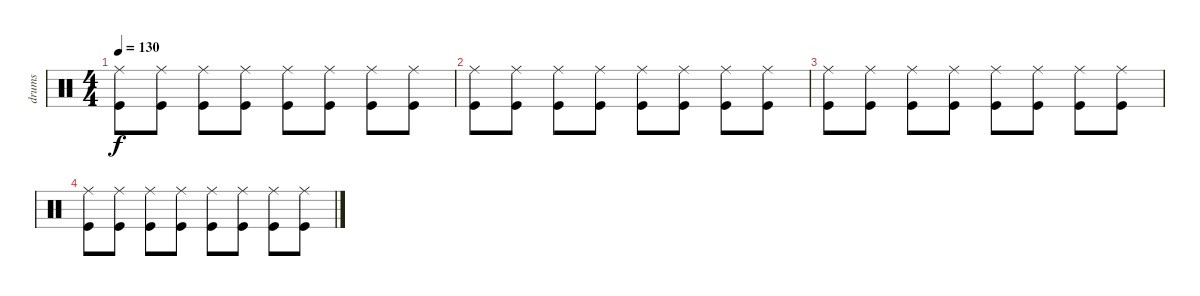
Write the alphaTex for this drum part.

\track ("drums" "drums") {instrument percussion}
\staff {score}
\articulation defaults
\ts (4 4)
\tempo 130
\clef neutral
\ks c
("Ride (middle)" "Kick (hit)").8{dy f} ("Ride (middle)" "Kick (hit)").8 ("Ride (middle)" "Kick (hit)").8 ("Ride (middle)" "Kick (hit)").8 ("Ride (middle)" "Kick (hit)").8 ("Ride (middle)" "Kick (hit)").8 ("Ride (middle)" "Kick (hit)").8 ("Ride (middle)" "Kick (hit)").8 |
("Ride (middle)" "Kick (hit)").8 ("Ride (middle)" "Kick (hit)").8 ("Ride (middle)" "Kick (hit)").8 ("Ride (middle)" "Kick (hit)").8 ("Ride (middle)" "Kick (hit)").8 ("Ride (middle)" "Kick (hit)").8 ("Ride (middle)" "Kick (hit)").8 ("Ride (middle)" "Kick (hit)").8 |
("Ride (middle)" "Kick (hit)").8 ("Ride (middle)" "Kick (hit)").8 ("Ride (middle)" "Kick (hit)").8 ("Ride (middle)" "Kick (hit)").8 ("Ride (middle)" "Kick (hit)").8 ("Ride (middle)" "Kick (hit)").8 ("Ride (middle)" "Kick (hit)").8 ("Ride (middle)" "Kick (hit)").8 |
("Ride (middle)" "Kick (hit)").8 ("Ride (middle)" "Kick (hit)").8 ("Ride (middle)" "Kick (hit)").8 ("Ride (middle)" "Kick (hit)").8 ("Ride (middle)" "Kick (hit)").8 ("Ride (middle)" "Kick (hit)").8 ("Ride (middle)" "Kick (hit)").8 ("Ride (middle)" "Kick (hit)").8
